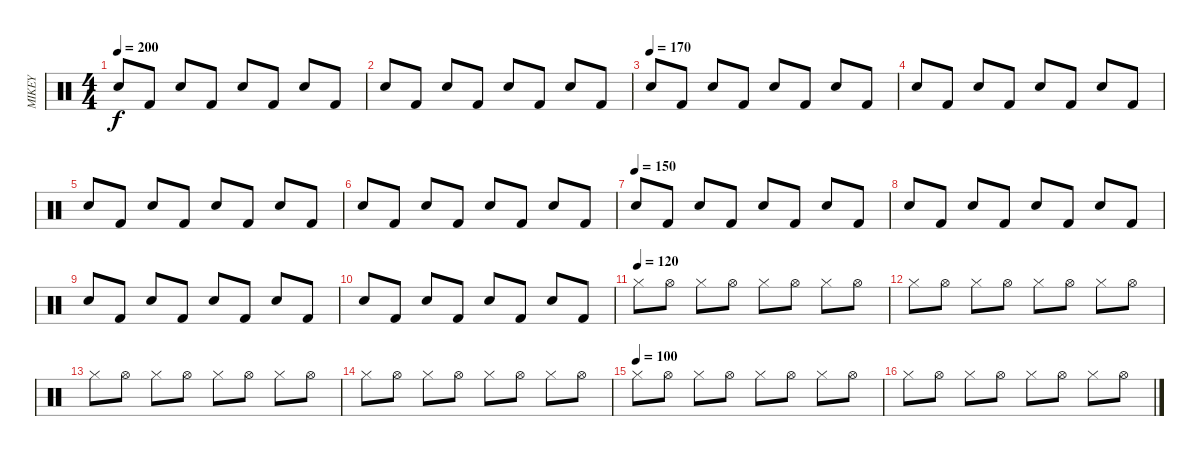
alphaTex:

\track ("MIKEY" "MIKEY") {instrument percussion}
\staff {score}
\articulation defaults
\ts (4 4)
\tempo 200
\clef neutral
\ks c "Electric Snare (hit)".8{dy f} "Kick (hit) 2".8 "Electric Snare (hit)".8 "Kick (hit) 2".8 "Electric Snare (hit)".8 "Kick (hit) 2".8 "Electric Snare (hit)".8 "Kick (hit) 2".8
|
"Electric Snare (hit)".8 "Kick (hit) 2".8 "Electric Snare (hit)".8 "Kick (hit) 2".8 "Electric Snare (hit)".8 "Kick (hit) 2".8 "Electric Snare (hit)".8 "Kick (hit) 2".8 |
\tempo (170)
"Electric Snare (hit)".8 "Kick (hit) 2".8 "Electric Snare (hit)".8 "Kick (hit) 2".8 "Electric Snare (hit)".8 "Kick (hit) 2".8 "Electric Snare (hit)".8 "Kick (hit) 2".8 |
"Electric Snare (hit)".8 "Kick (hit) 2".8 "Electric Snare (hit)".8 "Kick (hit) 2".8 "Electric Snare (hit)".8 "Kick (hit) 2".8 "Electric Snare (hit)".8 "Kick (hit) 2".8 |
"Electric Snare (hit)".8 "Kick (hit) 2".8 "Electric Snare (hit)".8 "Kick (hit) 2".8 "Electric Snare (hit)".8 "Kick (hit) 2".8 "Electric Snare (hit)".8 "Kick (hit) 2".8 |
"Electric Snare (hit)".8 "Kick (hit) 2".8 "Electric Snare (hit)".8 "Kick (hit) 2".8 "Electric Snare (hit)".8 "Kick (hit) 2".8 "Electric Snare (hit)".8 "Kick (hit) 2".8 |
\tempo (150)
"Electric Snare (hit)".8 "Kick (hit) 2".8 "Electric Snare (hit)".8 "Kick (hit) 2".8 "Electric Snare (hit)".8 "Kick (hit) 2".8 "Electric Snare (hit)".8 "Kick (hit) 2".8 |
"Electric Snare (hit)".8 "Kick (hit) 2".8 "Electric Snare (hit)".8 "Kick (hit) 2".8 "Electric Snare (hit)".8 "Kick (hit) 2".8 "Electric Snare (hit)".8 "Kick (hit) 2".8 |
"Electric Snare (hit)".8 "Kick (hit) 2".8 "Electric Snare (hit)".8 "Kick (hit) 2".8 "Electric Snare (hit)".8 "Kick (hit) 2".8 "Electric Snare (hit)".8 "Kick (hit) 2".8 |
"Electric Snare (hit)".8 "Kick (hit) 2".8 "Electric Snare (hit)".8 "Kick (hit) 2".8 "Electric Snare (hit)".8 "Kick (hit) 2".8 "Electric Snare (hit)".8 "Kick (hit) 2".8 |
\tempo (120)
"Hi-Hat (closed)".8 "Hi-Hat (open)".8 "Hi-Hat (closed)".8 "Hi-Hat (open)".8 "Hi-Hat (closed)".8 "Hi-Hat (open)".8 "Hi-Hat (closed)".8 "Hi-Hat (open)".8 |
"Hi-Hat (closed)".8 "Hi-Hat (open)".8 "Hi-Hat (closed)".8 "Hi-Hat (open)".8 "Hi-Hat (closed)".8 "Hi-Hat (open)".8 "Hi-Hat (closed)".8 "Hi-Hat (open)".8 |
"Hi-Hat (closed)".8 "Hi-Hat (open)".8 "Hi-Hat (closed)".8 "Hi-Hat (open)".8 "Hi-Hat (closed)".8 "Hi-Hat (open)".8 "Hi-Hat (closed)".8 "Hi-Hat (open)".8 |
"Hi-Hat (closed)".8 "Hi-Hat (open)".8 "Hi-Hat (closed)".8 "Hi-Hat (open)".8 "Hi-Hat (closed)".8 "Hi-Hat (open)".8 "Hi-Hat (closed)".8 "Hi-Hat (open)".8 |
\tempo (100)
"Hi-Hat (closed)".8 "Hi-Hat (open)".8 "Hi-Hat (closed)".8 "Hi-Hat (open)".8 "Hi-Hat (closed)".8 "Hi-Hat (open)".8 "Hi-Hat (closed)".8 "Hi-Hat (open)".8 |
"Hi-Hat (closed)".8 "Hi-Hat (open)".8 "Hi-Hat (closed)".8 "Hi-Hat (open)".8 "Hi-Hat (closed)".8 "Hi-Hat (open)".8 "Hi-Hat (closed)".8 "Hi-Hat (open)".8
